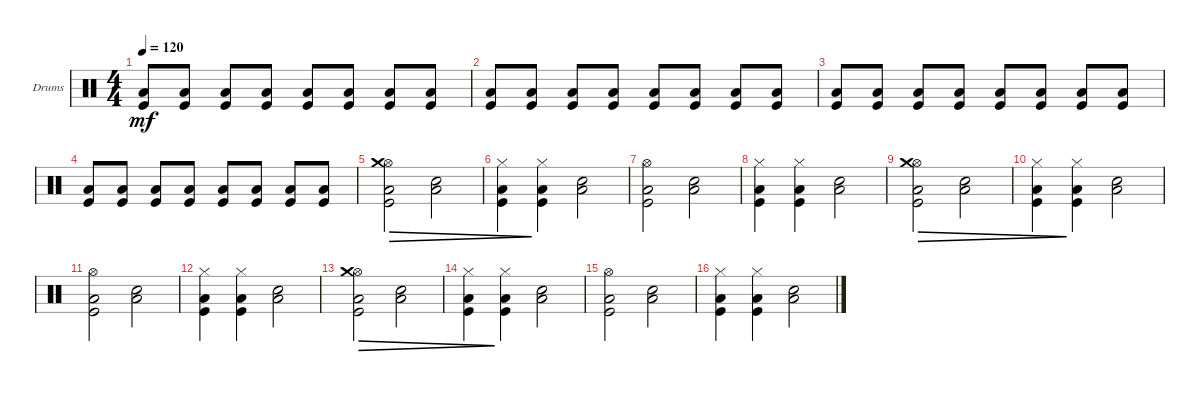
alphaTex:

\bracketExtendMode groupsimilarinstruments
\firstSystemTrackNameOrientation horizontal
\otherSystemsTrackNameOrientation horizontal
\track ("Drumkit" "Drums") {instrument percussion}
\staff {score}
\articulation defaults
\ts (4 4)
\tempo 120
\clef neutral
\ks c
("Kick (hit)" "Low Tom (hit)").8{dy mf} ("Kick (hit)" "Low Tom (hit)").8 ("Kick (hit)" "Low Tom (hit)").8 ("Kick (hit)" "Low Tom (hit)").8 ("Kick (hit)" "Low Tom (hit)").8 ("Kick (hit)" "Low Tom (hit)").8 ("Kick (hit)" "Low Tom (hit)").8 ("Kick (hit)" "Low Tom (hit)").8 |
("Kick (hit)" "Low Tom (hit)").8 ("Kick (hit)" "Low Tom (hit)").8 ("Kick (hit)" "Low Tom (hit)").8 ("Kick (hit)" "Low Tom (hit)").8 ("Kick (hit)" "Low Tom (hit)").8 ("Kick (hit)" "Low Tom (hit)").8 ("Kick (hit)" "Low Tom (hit)").8 ("Kick (hit)" "Low Tom (hit)").8 |
("Kick (hit)" "Low Tom (hit)").8 ("Kick (hit)" "Low Tom (hit)").8 ("Kick (hit)" "Low Tom (hit)").8 ("Kick (hit)" "Low Tom (hit)").8 ("Kick (hit)" "Low Tom (hit)").8 ("Kick (hit)" "Low Tom (hit)").8 ("Kick (hit)" "Low Tom (hit)").8 ("Kick (hit)" "Low Tom (hit)").8 |
("Kick (hit)" "Low Tom (hit)").8 ("Kick (hit)" "Low Tom (hit)").8 ("Kick (hit)" "Low Tom (hit)").8 ("Kick (hit)" "Low Tom (hit)").8 ("Kick (hit)" "Low Tom (hit)").8 ("Kick (hit)" "Low Tom (hit)").8 ("Kick (hit)" "Low Tom (hit)").8 ("Kick (hit)" "Low Tom (hit)").8 |
("Kick (hit)" "Hi-Hat (open)" "Low Tom (hit)" "Crash medium (hit)").2{dec} ("Snare (hit) 2" "Low Tom (hit)").2{dec} |
("Kick (hit)" "Low Tom (hit)" "Hi-Hat (closed)").4{dec} ("Kick (hit)" "Low Tom (hit)" "Hi-Hat (closed)").4 ("Snare (hit) 2" "Low Tom (hit)").2 |
("Kick (hit)" "Hi-Hat (open)" "Low Tom (hit)").2 ("Snare (hit) 2" "Low Tom (hit)").2 |
("Kick (hit)" "Low Tom (hit)" "Hi-Hat (closed)").4 ("Kick (hit)" "Low Tom (hit)" "Hi-Hat (closed)").4 ("Snare (hit) 2" "Low Tom (hit)").2 |
("Kick (hit)" "Hi-Hat (open)" "Low Tom (hit)" "Crash medium (hit)").2{dec} ("Low Tom (hit)" "Snare (hit) 2").2{dec} |
("Kick (hit)" "Low Tom (hit)" "Hi-Hat (closed)").4{dec} ("Kick (hit)" "Low Tom (hit)" "Hi-Hat (closed)").4 ("Snare (hit) 2" "Low Tom (hit)").2 |
("Kick (hit)" "Hi-Hat (open)" "Low Tom (hit)").2 ("Snare (hit) 2" "Low Tom (hit)").2 |
("Kick (hit)" "Low Tom (hit)" "Hi-Hat (closed)").4 ("Kick (hit)" "Low Tom (hit)" "Hi-Hat (closed)").4 ("Snare (hit) 2" "Low Tom (hit)").2 |
("Kick (hit)" "Hi-Hat (open)" "Low Tom (hit)" "Crash medium (hit)").2{dec} ("Snare (hit) 2" "Low Tom (hit)").2{dec} |
("Kick (hit)" "Low Tom (hit)" "Hi-Hat (closed)").4{dec} ("Kick (hit)" "Low Tom (hit)" "Hi-Hat (closed)").4 ("Snare (hit) 2" "Low Tom (hit)").2 |
("Kick (hit)" "Hi-Hat (open)" "Low Tom (hit)").2 ("Snare (hit) 2" "Low Tom (hit)").2 |
("Kick (hit)" "Low Tom (hit)" "Hi-Hat (closed)").4 ("Kick (hit)" "Low Tom (hit)" "Hi-Hat (closed)").4 ("Snare (hit) 2" "Low Tom (hit)").2
